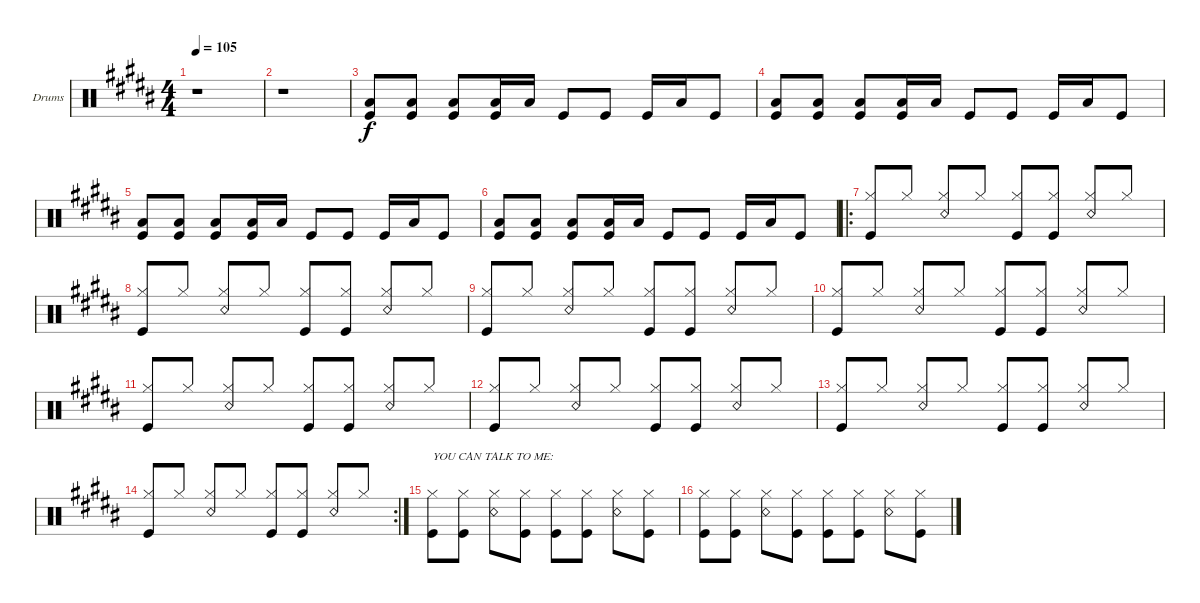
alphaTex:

\defaultSystemsLayout 4
\bracketExtendMode groupsimilarinstruments
\firstSystemTrackNameOrientation horizontal
\otherSystemsTrackNameOrientation horizontal
\track ("Ringo Starr" "Drums") {instrument percussion}
\staff {score}
\articulation defaults
\ts (4 4)
\tempo 105
\clef neutral
\scale
0.552
\ks b
r.1{dy f} |
\scale
0.224 r.1 |
\scale
0.224 ("Kick (hit)" "Low Tom (hit)").8 ("Kick (hit)" "Low Tom (hit)").8 ("Kick (hit)" "Low Tom (hit)").8 ("Kick (hit)" "Low Tom (hit)").16 "Low Tom (hit)".16 "Kick (hit)".8 "Kick (hit)".8 "Kick (hit)".16 "Low Tom (hit)".16 "Kick (hit)".8 |
\scale
0.311111 ("Kick (hit)" "Low Tom (hit)").8 ("Kick (hit)" "Low Tom (hit)").8 ("Kick (hit)" "Low Tom (hit)").8 ("Kick (hit)" "Low Tom (hit)").16 "Low Tom (hit)".16 "Kick (hit)".8 "Kick (hit)".8 "Kick (hit)".16 "Low Tom (hit)".16 "Kick (hit)".8 |
("Kick (hit)" "Low Tom (hit)").8 ("Kick (hit)" "Low Tom (hit)").8 ("Kick (hit)" "Low Tom (hit)").8 ("Kick (hit)" "Low Tom (hit)").16 "Low Tom (hit)".16 "Kick (hit)".8 "Kick (hit)".8 "Kick (hit)".16 "Low Tom (hit)".16 "Kick (hit)".8 |
("Kick (hit)" "Low Tom (hit)").8 ("Kick (hit)" "Low Tom (hit)").8 ("Kick (hit)" "Low Tom (hit)").8 ("Kick (hit)" "Low Tom (hit)").16 "Low Tom (hit)".16 "Kick (hit)".8 "Kick (hit)".8 "Kick (hit)".16 "Low Tom (hit)".16 "Kick (hit)".8 |
\ro
\scale
0.377778 ("Hi-Hat (closed)" "Kick (hit)").8{beam invert} "Hi-Hat (closed)".8 ("Hi-Hat (closed)" "Snare (rim shot)").8{beam invert} "Hi-Hat (closed)".8 ("Hi-Hat (closed)" "Kick (hit)").8 ("Hi-Hat (closed)" "Kick (hit)").8 ("Hi-Hat (closed)" "Snare (rim shot)").8{beam invert} "Hi-Hat (closed)".8 |
\scale
0.311111 ("Hi-Hat (closed)" "Kick (hit)").8{beam invert} "Hi-Hat (closed)".8 ("Hi-Hat (closed)" "Snare (rim shot)").8{beam invert} "Hi-Hat (closed)".8 ("Hi-Hat (closed)" "Kick (hit)").8 ("Hi-Hat (closed)" "Kick (hit)").8 ("Hi-Hat (closed)" "Snare (rim shot)").8{beam invert} "Hi-Hat (closed)".8 |
\scale
0.333333 ("Hi-Hat (closed)" "Kick (hit)").8{beam invert} "Hi-Hat (closed)".8 ("Hi-Hat (closed)" "Snare (rim shot)").8{beam invert} "Hi-Hat (closed)".8 ("Hi-Hat (closed)" "Kick (hit)").8 ("Hi-Hat (closed)" "Kick (hit)").8 ("Hi-Hat (closed)" "Snare (rim shot)").8{beam invert} "Hi-Hat (closed)".8 |
\scale
0.333333 ("Hi-Hat (closed)" "Kick (hit)").8{beam invert} "Hi-Hat (closed)".8 ("Hi-Hat (closed)" "Snare (rim shot)").8{beam invert} "Hi-Hat (closed)".8 ("Hi-Hat (closed)" "Kick (hit)").8 ("Hi-Hat (closed)" "Kick (hit)").8 ("Hi-Hat (closed)" "Snare (rim shot)").8{beam invert} "Hi-Hat (closed)".8 |
\scale
0.333333 ("Hi-Hat (closed)" "Kick (hit)").8{beam invert} "Hi-Hat (closed)".8 ("Hi-Hat (closed)" "Snare (rim shot)").8{beam invert} "Hi-Hat (closed)".8 ("Hi-Hat (closed)" "Kick (hit)").8 ("Hi-Hat (closed)" "Kick (hit)").8 ("Hi-Hat (closed)" "Snare (rim shot)").8{beam invert} "Hi-Hat (closed)".8 |
\scale
0.321839 ("Hi-Hat (closed)" "Kick (hit)").8{beam invert} "Hi-Hat (closed)".8 ("Hi-Hat (closed)" "Snare (rim shot)").8{beam invert} "Hi-Hat (closed)".8 ("Hi-Hat (closed)" "Kick (hit)").8 ("Hi-Hat (closed)" "Kick (hit)").8 ("Hi-Hat (closed)" "Snare (rim shot)").8{beam invert} "Hi-Hat (closed)".8 |
\scale
0.321839 ("Hi-Hat (closed)" "Kick (hit)").8{beam invert} "Hi-Hat (closed)".8 ("Hi-Hat (closed)" "Snare (rim shot)").8{beam invert} "Hi-Hat (closed)".8 ("Hi-Hat (closed)" "Kick (hit)").8 ("Hi-Hat (closed)" "Kick (hit)").8 ("Hi-Hat (closed)" "Snare (rim shot)").8{beam invert} "Hi-Hat (closed)".8 |
\rc 2
\scale
0.356322 ("Hi-Hat (closed)" "Kick (hit)").8{beam invert} "Hi-Hat (closed)".8 ("Hi-Hat (closed)" "Snare (rim shot)").8{beam invert} "Hi-Hat (closed)".8 ("Hi-Hat (closed)" "Kick (hit)").8 ("Hi-Hat (closed)" "Kick (hit)").8 ("Hi-Hat (closed)" "Snare (rim shot)").8{beam invert} "Hi-Hat (closed)".8 |
\scale
0.333333 ("Hi-Hat (closed)" "Kick (hit)").8{txt "YOU CAN TALK TO ME:"} ("Hi-Hat (closed)" "Kick (hit)").8 ("Hi-Hat (closed)" "Snare (rim shot)").8 ("Hi-Hat (closed)" "Kick (hit)").8 ("Hi-Hat (closed)" "Kick (hit)").8 ("Hi-Hat (closed)" "Kick (hit)").8 ("Hi-Hat (closed)" "Snare (rim shot)").8 ("Hi-Hat (closed)" "Kick (hit)").8 |
\scale
0.333333 ("Hi-Hat (closed)" "Kick (hit)").8 ("Hi-Hat (closed)" "Kick (hit)").8 ("Hi-Hat (closed)" "Snare (rim shot)").8 ("Hi-Hat (closed)" "Kick (hit)").8 ("Hi-Hat (closed)" "Kick (hit)").8 ("Hi-Hat (closed)" "Kick (hit)").8 ("Hi-Hat (closed)" "Snare (rim shot)").8 ("Hi-Hat (closed)" "Kick (hit)").8
